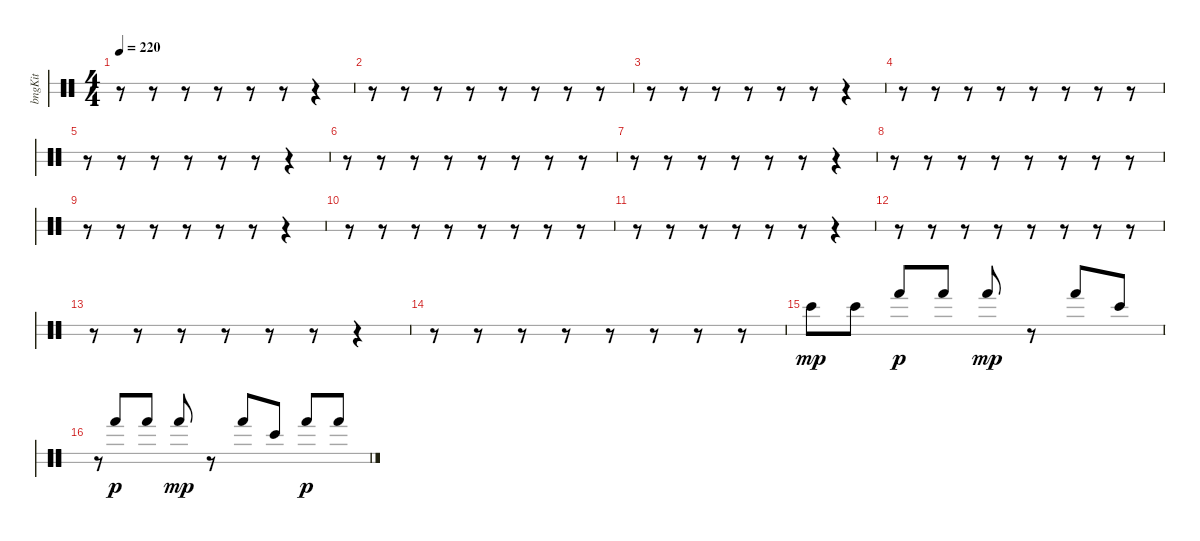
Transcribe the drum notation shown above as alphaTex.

\bracketExtendMode groupsimilarinstruments
\otherSystemsTrackNameOrientation horizontal
\track ("Bongos" "bngKit") {instrument percussion}
\staff {score 2}
\articulation defaults
\ts (4 4)
\tempo 220
\clef neutral
\ks c
r.8{dy p beam Down} r.8{beam Down} r.8{beam Down} r.8{beam Down} r.8{beam Down} r.8{beam Down} r.4{beam Down} |
r.8{beam Down} r.8{beam Down} r.8{beam Down} r.8{beam Down} r.8{beam Down} r.8{beam Down} r.8{beam Down} r.8{beam Down} |
r.8{beam Down} r.8{beam Down} r.8{beam Down} r.8{beam Down} r.8{beam Down} r.8{beam Down} r.4{beam Down} |
r.8{beam Down} r.8{beam Down} r.8{beam Down} r.8{beam Down} r.8{beam Down} r.8{beam Down} r.8{beam Down} r.8{beam Down} |
r.8{beam Down} r.8{beam Down} r.8{beam Down} r.8{beam Down} r.8{beam Down} r.8{beam Down} r.4{beam Down} |
r.8{beam Down} r.8{beam Down} r.8{beam Down} r.8{beam Down} r.8{beam Down} r.8{beam Down} r.8{beam Down} r.8{beam Down} |
r.8{beam Down} r.8{beam Down} r.8{beam Down} r.8{beam Down} r.8{beam Down} r.8{beam Down} r.4{beam Down} |
r.8{beam Down} r.8{beam Down} r.8{beam Down} r.8{beam Down} r.8{beam Down} r.8{beam Down} r.8{beam Down} r.8{beam Down} |
r.8{beam Down} r.8{beam Down} r.8{beam Down} r.8{beam Down} r.8{beam Down} r.8{beam Down} r.4{beam Down} |
r.8{beam Down} r.8{beam Down} r.8{beam Down} r.8{beam Down} r.8{beam Down} r.8{beam Down} r.8{beam Down} r.8{beam Down} |
r.8{beam Down} r.8{beam Down} r.8{beam Down} r.8{beam Down} r.8{beam Down} r.8{beam Down} r.4{beam Down} |
r.8{beam Down} r.8{beam Down} r.8{beam Down} r.8{beam Down} r.8{beam Down} r.8{beam Down} r.8{beam Down} r.8{beam Down} |
r.8{beam Down} r.8{beam Down} r.8{beam Down} r.8{beam Down} r.8{beam Down} r.8{beam Down} r.4{beam Down} |
r.8{beam Down} r.8{beam Down} r.8{beam Down} r.8{beam Down} r.8{beam Down} r.8{beam Down} r.8{beam Down} r.8{beam Down} |
"Bongo High (hit)".8{dy mp beam Down} "Bongo High (hit)".8{beam Down} "Hand (hit)".8{dy p beam Up} "Hand (hit)".8{beam Up} "Hand (hit)".8{dy mp beam Up} r.8{beam Up} "Hand (hit)".8{beam Up} "Bongo High (hit)".8{beam Up} |
r.8{gr beam Up} "Hand (hit)".8{dy p beam Up} "Hand (hit)".8{beam Up} "Hand (hit)".8{dy mp beam Up} r.8{beam Up} "Hand (hit)".8{beam Up} "Bongo High (hit)".8{beam Up} "Hand (hit)".8{dy p beam Up} "Hand (hit)".8{beam Up}
